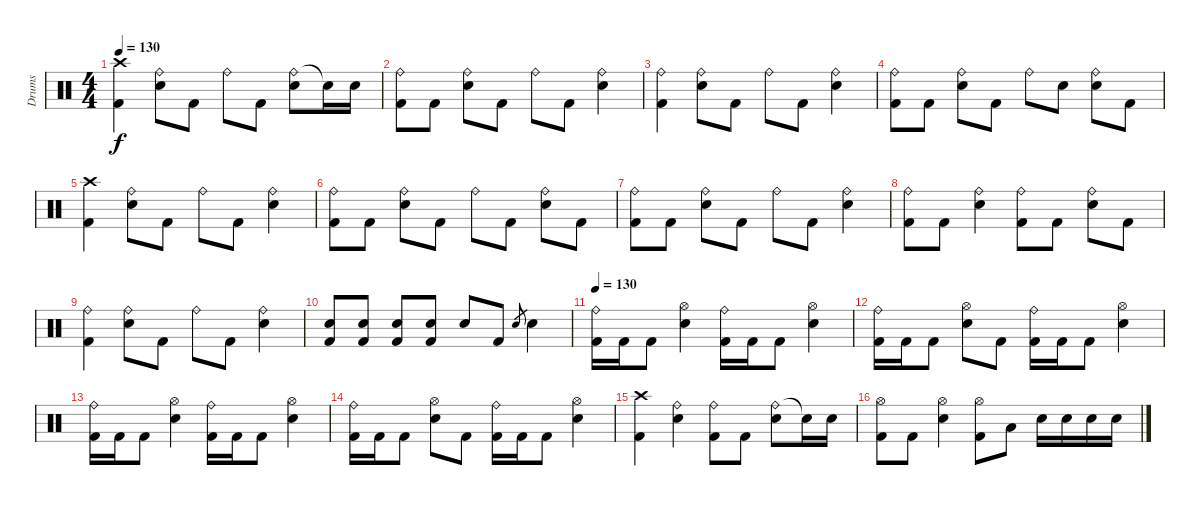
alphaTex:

\track ("Drums" "Drums") {instrument percussion}
\staff {score}
\articulation defaults
\ts (4 4)
\tempo 130
\clef neutral
\ks c
("Crash high (hit)" "Kick (hit) 2").4{dy f} ("Ride (bell)" "Electric Snare (hit)").8 "Kick (hit) 2".8 "Ride (bell)".8 "Kick (hit) 2".8 ("Ride (bell)" "Electric Snare (hit)").8 "Snare (hit)"{t}.16 "Electric Snare (hit)".16 |
("Ride (bell)" "Kick (hit) 2").8 "Kick (hit) 2".8 ("Ride (bell)" "Electric Snare (hit)").8 "Kick (hit) 2".8 "Ride (bell)".8 "Kick (hit) 2".8 ("Ride (bell)" "Electric Snare (hit)").4 |
("Ride (bell)" "Kick (hit) 2").4 ("Ride (bell)" "Electric Snare (hit)").8 "Kick (hit) 2".8 "Ride (bell)".8 "Kick (hit) 2".8 ("Ride (bell)" "Electric Snare (hit)").4 |
("Ride (bell)" "Kick (hit) 2").8 "Kick (hit) 2".8 ("Ride (bell)" "Electric Snare (hit)").8 "Kick (hit) 2".8 "Ride (bell)".8 "Electric Snare (hit)".8 ("Ride (bell)" "Electric Snare (hit)").8 "Kick (hit) 2".8 |
("Crash high (hit)" "Kick (hit) 2").4 ("Ride (bell)" "Electric Snare (hit)").8 "Kick (hit) 2".8 "Ride (bell)".8 "Kick (hit) 2".8 ("Ride (bell)" "Electric Snare (hit)").4 |
("Ride (bell)" "Kick (hit) 2").8 "Kick (hit) 2".8 ("Ride (bell)" "Electric Snare (hit)").8 "Kick (hit) 2".8 "Ride (bell)".8 "Kick (hit) 2".8 ("Ride (bell)" "Electric Snare (hit)").8 "Kick (hit) 2".8 |
("Ride (bell)" "Kick (hit) 2").8 "Kick (hit) 2".8 ("Ride (bell)" "Electric Snare (hit)").8 "Kick (hit) 2".8 "Ride (bell)".8 "Kick (hit) 2".8 ("Ride (bell)" "Electric Snare (hit)").4 |
("Ride (bell)" "Kick (hit) 2").8 "Kick (hit) 2".8 ("Ride (bell)" "Electric Snare (hit)").4 ("Ride (bell)" "Kick (hit) 2").8 "Kick (hit) 2".8 ("Ride (bell)" "Electric Snare (hit)").8 "Kick (hit) 2".8 |
("Ride (bell)" "Kick (hit) 2").4 ("Ride (bell)" "Electric Snare (hit)").8 "Kick (hit) 2".8 "Ride (bell)".8 "Kick (hit) 2".8 ("Ride (bell)" "Electric Snare (hit)").4 |
("Electric Snare (hit)" "Kick (hit) 2").8 ("Electric Snare (hit)" "Kick (hit) 2").8 ("Electric Snare (hit)" "Kick (hit) 2").8 ("Electric Snare (hit)" "Kick (hit) 2").8 "Electric Snare (hit)".8 "Kick (hit) 2".8 "Electric Snare (hit)".8{gr} "Electric Snare (hit)".4 |
\tempo 130
("Ride (bell)" "Kick (hit) 2").16 "Kick (hit) 2".16 "Kick (hit) 2".8 ("Hi-Hat (open)" "Electric Snare (hit)").4 ("Ride (bell)" "Kick (hit) 2").16 "Kick (hit) 2".16 "Kick (hit) 2".8 ("Hi-Hat (open)" "Electric Snare (hit)").4 |
("Ride (bell)" "Kick (hit) 2").16 "Kick (hit) 2".16 "Kick (hit) 2".8 ("Hi-Hat (open)" "Electric Snare (hit)").8 "Kick (hit) 2".8 ("Ride (bell)" "Kick (hit) 2").16 "Kick (hit) 2".16 "Kick (hit) 2".8 ("Hi-Hat (open)" "Electric Snare (hit)").4 |
("Ride (bell)" "Kick (hit) 2").16 "Kick (hit) 2".16 "Kick (hit) 2".8 ("Hi-Hat (open)" "Electric Snare (hit)").4 ("Ride (bell)" "Kick (hit) 2").16 "Kick (hit) 2".16 "Kick (hit) 2".8 ("Hi-Hat (open)" "Electric Snare (hit)").4 |
("Ride (bell)" "Kick (hit) 2").16 "Kick (hit) 2".16 "Kick (hit) 2".8 ("Hi-Hat (open)" "Electric Snare (hit)").8 "Kick (hit) 2".8 ("Ride (bell)" "Kick (hit) 2").16 "Kick (hit) 2".16 "Kick (hit) 2".8 ("Hi-Hat (open)" "Electric Snare (hit)").4 |
("Crash high (hit)" "Kick (hit) 2").4 ("Ride (bell)" "Electric Snare (hit)").4 ("Ride (bell)" "Kick (hit) 2").8 "Kick (hit) 2".8 ("Ride (bell)" "Electric Snare (hit)").8 "Snare (hit)"{t}.16 "Electric Snare (hit)".16 |
("Hi-Hat (open)" "Kick (hit) 2").8 "Kick (hit) 2".8 ("Hi-Hat (open)" "Electric Snare (hit)").4 ("Hi-Hat (open)" "Kick (hit) 2").8 "Low Tom (hit)".8 "Electric Snare (hit)".16 "Electric Snare (hit)".16 "Electric Snare (hit)".16 "Electric Snare (hit)".16
